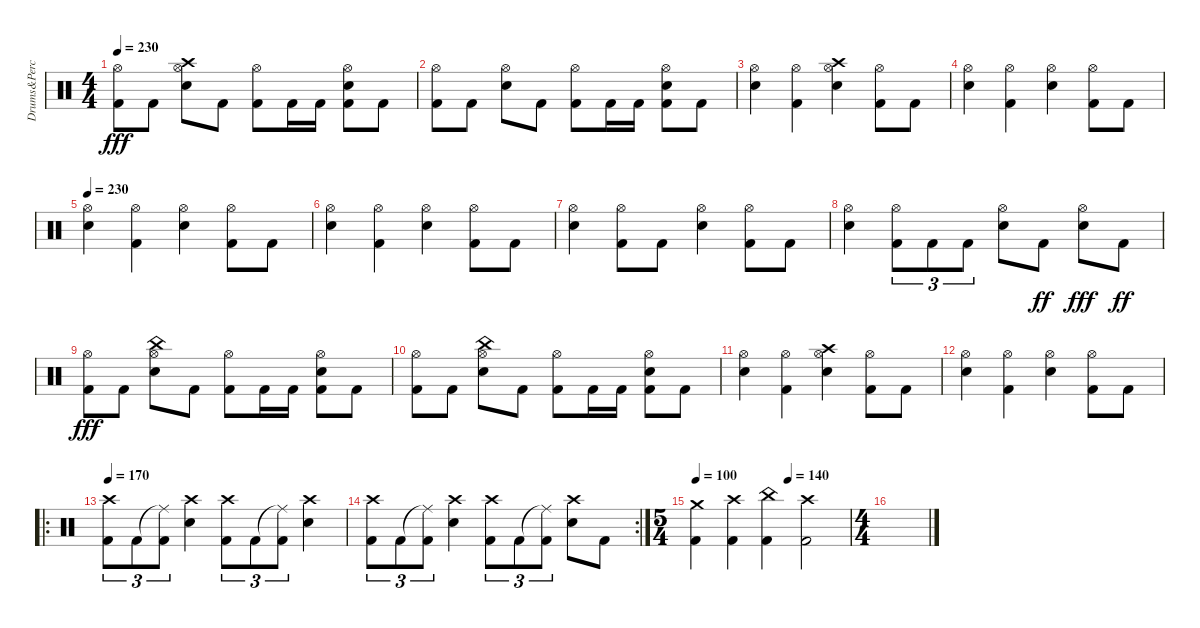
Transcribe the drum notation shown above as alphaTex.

\track ("Drums&Percusion" "Drums&Perc") {instrument percussion}
\staff {score}
\articulation defaults
\ts (4 4)
\tempo 230
\clef neutral
\ks c
("Hi-Hat (open)" "Kick (hit) 2").8{dy fff} "Kick (hit) 2".8 ("Hi-Hat (open)" "Crash high (hit)" "Snare (hit) 2").8 "Kick (hit) 2".8 ("Hi-Hat (open)" "Kick (hit) 2").8 "Kick (hit) 2".16 "Kick (hit) 2".16 ("Hi-Hat (open)" "Snare (hit) 2" "Kick (hit) 2").8 "Kick (hit) 2".8 |
("Hi-Hat (open)" "Kick (hit) 2").8 "Kick (hit) 2".8 ("Hi-Hat (open)" "Snare (hit) 2").8 "Kick (hit) 2".8 ("Hi-Hat (open)" "Kick (hit) 2").8 "Kick (hit) 2".16 "Kick (hit) 2".16 ("Hi-Hat (open)" "Snare (hit) 2" "Kick (hit) 2").8 "Kick (hit) 2".8 |
("Hi-Hat (open)" "Snare (hit) 2").4 ("Hi-Hat (open)" "Kick (hit) 2").4 ("Hi-Hat (open)" "Crash high (hit)" "Snare (hit) 2").4 ("Hi-Hat (open)" "Kick (hit) 2").8 "Kick (hit) 2".8 |
("Hi-Hat (open)" "Snare (hit) 2").4 ("Hi-Hat (open)" "Kick (hit) 2").4 ("Hi-Hat (open)" "Snare (hit) 2").4 ("Hi-Hat (open)" "Kick (hit) 2").8 "Kick (hit) 2".8 |
\tempo 230
("Hi-Hat (open)" "Snare (hit) 2").4 ("Hi-Hat (open)" "Kick (hit) 2").4 ("Hi-Hat (open)" "Snare (hit) 2").4 ("Hi-Hat (open)" "Kick (hit) 2").8 "Kick (hit) 2".8 |
("Hi-Hat (open)" "Snare (hit) 2").4 ("Hi-Hat (open)" "Kick (hit) 2").4 ("Hi-Hat (open)" "Snare (hit) 2").4 ("Hi-Hat (open)" "Kick (hit) 2").8 "Kick (hit) 2".8 |
("Hi-Hat (open)" "Snare (hit) 2").4 ("Hi-Hat (open)" "Kick (hit) 2").8 "Kick (hit) 2".8 ("Hi-Hat (open)" "Snare (hit) 2").4 ("Hi-Hat (open)" "Kick (hit) 2").8 "Kick (hit) 2".8 |
("Hi-Hat (open)" "Snare (hit) 2").4 ("Hi-Hat (open)" "Kick (hit) 2").8{tu (3 2)} "Kick (hit) 2".8{tu (3 2)} "Kick (hit) 2".8{tu (3 2)} ("Hi-Hat (open)" "Snare (hit) 2").8 "Kick (hit) 2".8{dy ff} ("Hi-Hat (open)" "Snare (hit) 2").8{dy fff} "Kick (hit) 2".8{dy ff} |
("Hi-Hat (open)" "Kick (hit) 2").8{dy fff} "Kick (hit) 2".8 ("Hi-Hat (open)" "China (hit)" "Snare (hit) 2").8 "Kick (hit) 2".8 ("Hi-Hat (open)" "Kick (hit) 2").8 "Kick (hit) 2".16 "Kick (hit) 2".16 ("Hi-Hat (open)" "Snare (hit) 2" "Kick (hit) 2").8 "Kick (hit) 2".8 |
("Hi-Hat (open)" "Kick (hit) 2").8 "Kick (hit) 2".8 ("Hi-Hat (open)" "China (hit)" "Snare (hit) 2").8 "Kick (hit) 2".8 ("Hi-Hat (open)" "Kick (hit) 2").8 "Kick (hit) 2".16 "Kick (hit) 2".16 ("Hi-Hat (open)" "Snare (hit) 2" "Kick (hit) 2").8 "Kick (hit) 2".8 |
("Hi-Hat (open)" "Snare (hit) 2").4 ("Hi-Hat (open)" "Kick (hit) 2").4 ("Hi-Hat (open)" "Crash high (hit)" "Snare (hit) 2").4 ("Hi-Hat (open)" "Kick (hit) 2").8 "Kick (hit) 2".8 |
("Hi-Hat (open)" "Snare (hit) 2").4 ("Hi-Hat (open)" "Kick (hit) 2").4 ("Hi-Hat (open)" "Snare (hit) 2").4 ("Hi-Hat (open)" "Kick (hit) 2").8 "Kick (hit) 2".8 |
\ro
\tempo 170
("Crash high (hit)" "Kick (hit) 2").8{tu (3 2)} "Kick (hit) 2".8{tu (3 2)} ("Ride (middle)"{t} "Kick (hit) 2").8{tu (3 2)} ("Crash high (hit)" "Snare (hit) 2").4 ("Crash high (hit)" "Kick (hit) 2").8{tu (3 2)} "Kick (hit) 2".8{tu (3 2)} ("Ride (middle)"{t} "Kick (hit) 2").8{tu (3 2)} ("Crash high (hit)" "Snare (hit) 2").4 |
\rc 2
("Crash high (hit)" "Kick (hit) 2").8{tu (3 2)} "Kick (hit) 2".8{tu (3 2)} ("Ride (middle)"{t} "Kick (hit) 2").8{tu (3 2)} ("Crash high (hit)" "Snare (hit) 2").4 ("Crash high (hit)" "Kick (hit) 2").8{tu (3 2)} "Kick (hit) 2".8{tu (3 2)} ("Ride (middle)"{t} "Kick (hit) 2").8{tu (3 2)} ("Crash high (hit)" "Snare (hit) 2").8 "Kick (hit) 2".8 |
\ts (5 4)
\tempo 100
\tempo (140 0.6)
("Crash medium (hit)" "Kick (hit) 2").4 ("Crash high (hit)" "Kick (hit) 2").4 ("China (hit)" "Kick (hit) 2").4 ("Crash high (hit)" "Kick (hit) 2").2 |
\ts (4 4)
